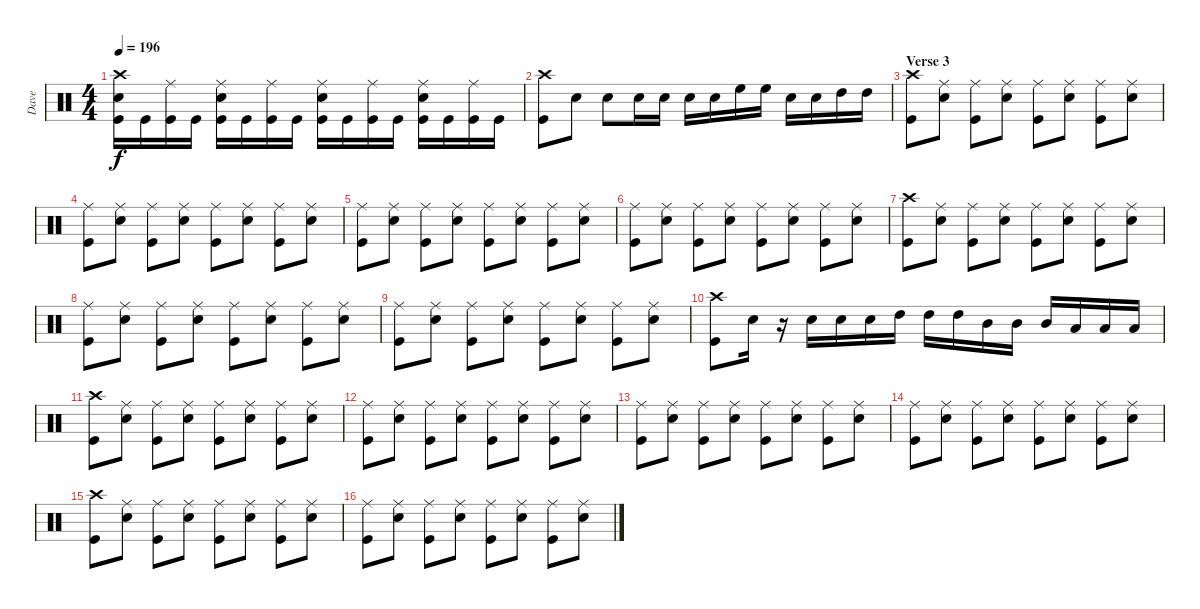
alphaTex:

\track ("Dave" "Dave") {instrument percussion}
\staff {score}
\articulation defaults
\ts (4 4)
\tempo 196
\clef neutral
\ks c
("Crash high (hit)" "Snare (hit) 2" "Kick (hit)").16{dy f} "Kick (hit)".16 ("Ride (middle)" "Kick (hit)").16 "Kick (hit)".16 ("Ride (middle)" "Snare (hit) 2" "Kick (hit)").16 "Kick (hit)".16 ("Ride (middle)" "Kick (hit)").16 "Kick (hit)".16 ("Ride (middle)" "Snare (hit) 2" "Kick (hit)").16 "Kick (hit)".16 ("Ride (middle)" "Kick (hit)").16 "Kick (hit)".16 ("Ride (middle)" "Snare (hit) 2" "Kick (hit)").16 "Kick (hit)".16 ("Ride (middle)" "Kick (hit)").16 "Kick (hit)".16 |
("Crash high (hit)" "Kick (hit)").8 "Snare (hit) 2".8 "Snare (hit) 2".8 "Snare (hit) 2".16 "Snare (hit) 2".16 "Snare (hit) 2".16 "Snare (hit) 2".16 "High Floor Tom (hit)".16 "High Floor Tom (hit)".16 "Snare (hit) 2".16 "Snare (hit) 2".16 "High Tom (hit)".16 "High Tom (hit)".16 |
\section ("" "Verse 3")
("Crash high (hit)" "Kick (hit)").8 ("Ride (middle)" "Snare (hit) 2").8 ("Ride (middle)" "Kick (hit)").8 ("Ride (middle)" "Snare (hit) 2").8 ("Ride (middle)" "Kick (hit)").8 ("Ride (middle)" "Snare (hit) 2").8 ("Ride (middle)" "Kick (hit)").8 ("Ride (middle)" "Snare (hit) 2").8 |
("Ride (middle)" "Kick (hit)").8 ("Ride (middle)" "Snare (hit) 2").8 ("Ride (middle)" "Kick (hit)").8 ("Ride (middle)" "Snare (hit) 2").8 ("Ride (middle)" "Kick (hit)").8 ("Ride (middle)" "Snare (hit) 2").8 ("Ride (middle)" "Kick (hit)").8 ("Ride (middle)" "Snare (hit) 2").8 |
("Ride (middle)" "Kick (hit)").8 ("Ride (middle)" "Snare (hit) 2").8 ("Ride (middle)" "Kick (hit)").8 ("Ride (middle)" "Snare (hit) 2").8 ("Ride (middle)" "Kick (hit)").8 ("Ride (middle)" "Snare (hit) 2").8 ("Ride (middle)" "Kick (hit)").8 ("Ride (middle)" "Snare (hit) 2").8 |
("Ride (middle)" "Kick (hit)").8 ("Ride (middle)" "Snare (hit) 2").8 ("Ride (middle)" "Kick (hit)").8 ("Ride (middle)" "Snare (hit) 2").8 ("Ride (middle)" "Kick (hit)").8 ("Ride (middle)" "Snare (hit) 2").8 ("Ride (middle)" "Kick (hit)").8 ("Ride (middle)" "Snare (hit) 2").8 |
("Crash high (hit)" "Kick (hit)").8 ("Ride (middle)" "Snare (hit) 2").8 ("Ride (middle)" "Kick (hit)").8 ("Ride (middle)" "Snare (hit) 2").8 ("Ride (middle)" "Kick (hit)").8 ("Ride (middle)" "Snare (hit) 2").8 ("Ride (middle)" "Kick (hit)").8 ("Ride (middle)" "Snare (hit) 2").8 |
("Ride (middle)" "Kick (hit)").8 ("Ride (middle)" "Snare (hit) 2").8 ("Ride (middle)" "Kick (hit)").8 ("Ride (middle)" "Snare (hit) 2").8 ("Ride (middle)" "Kick (hit)").8 ("Ride (middle)" "Snare (hit) 2").8 ("Ride (middle)" "Kick (hit)").8 ("Ride (middle)" "Snare (hit) 2").8 |
("Ride (middle)" "Kick (hit)").8 ("Ride (middle)" "Snare (hit) 2").8 ("Ride (middle)" "Kick (hit)").8 ("Ride (middle)" "Snare (hit) 2").8 ("Ride (middle)" "Kick (hit)").8 ("Ride (middle)" "Snare (hit) 2").8 ("Ride (middle)" "Kick (hit)").8 ("Ride (middle)" "Snare (hit) 2").8 |
("Crash high (hit)" "Kick (hit)").8 "Snare (hit) 2".16 r.16 "Snare (hit) 2".16 "Snare (hit) 2".16 "Snare (hit) 2".16 "High Tom (hit)".16 "High Tom (hit)".16 "High Tom (hit)".16 "Mid Tom (hit)".16 "Mid Tom (hit)".16 "Mid Tom (hit)".16 "Low Tom (hit)".16 "Low Tom (hit)".16 "Low Tom (hit)".16 |
("Crash high (hit)" "Kick (hit)").8 ("Ride (middle)" "Snare (hit) 2").8 ("Ride (middle)" "Kick (hit)").8 ("Ride (middle)" "Snare (hit) 2").8 ("Ride (middle)" "Kick (hit)").8 ("Ride (middle)" "Snare (hit) 2").8 ("Ride (middle)" "Kick (hit)").8 ("Ride (middle)" "Snare (hit) 2").8 |
("Ride (middle)" "Kick (hit)").8 ("Ride (middle)" "Snare (hit) 2").8 ("Ride (middle)" "Kick (hit)").8 ("Ride (middle)" "Snare (hit) 2").8 ("Ride (middle)" "Kick (hit)").8 ("Ride (middle)" "Snare (hit) 2").8 ("Ride (middle)" "Kick (hit)").8 ("Ride (middle)" "Snare (hit) 2").8 |
("Ride (middle)" "Kick (hit)").8 ("Ride (middle)" "Snare (hit) 2").8 ("Ride (middle)" "Kick (hit)").8 ("Ride (middle)" "Snare (hit) 2").8 ("Ride (middle)" "Kick (hit)").8 ("Ride (middle)" "Snare (hit) 2").8 ("Ride (middle)" "Kick (hit)").8 ("Ride (middle)" "Snare (hit) 2").8 |
("Ride (middle)" "Kick (hit)").8 ("Ride (middle)" "Snare (hit) 2").8 ("Ride (middle)" "Kick (hit)").8 ("Ride (middle)" "Snare (hit) 2").8 ("Ride (middle)" "Kick (hit)").8 ("Ride (middle)" "Snare (hit) 2").8 ("Ride (middle)" "Kick (hit)").8 ("Ride (middle)" "Snare (hit) 2").8 |
("Crash high (hit)" "Kick (hit)").8 ("Ride (middle)" "Snare (hit) 2").8 ("Ride (middle)" "Kick (hit)").8 ("Ride (middle)" "Snare (hit) 2").8 ("Ride (middle)" "Kick (hit)").8 ("Ride (middle)" "Snare (hit) 2").8 ("Ride (middle)" "Kick (hit)").8 ("Ride (middle)" "Snare (hit) 2").8 |
("Ride (middle)" "Kick (hit)").8 ("Ride (middle)" "Snare (hit) 2").8 ("Ride (middle)" "Kick (hit)").8 ("Ride (middle)" "Snare (hit) 2").8 ("Ride (middle)" "Kick (hit)").8 ("Ride (middle)" "Snare (hit) 2").8 ("Ride (middle)" "Kick (hit)").8 ("Ride (middle)" "Snare (hit) 2").8
